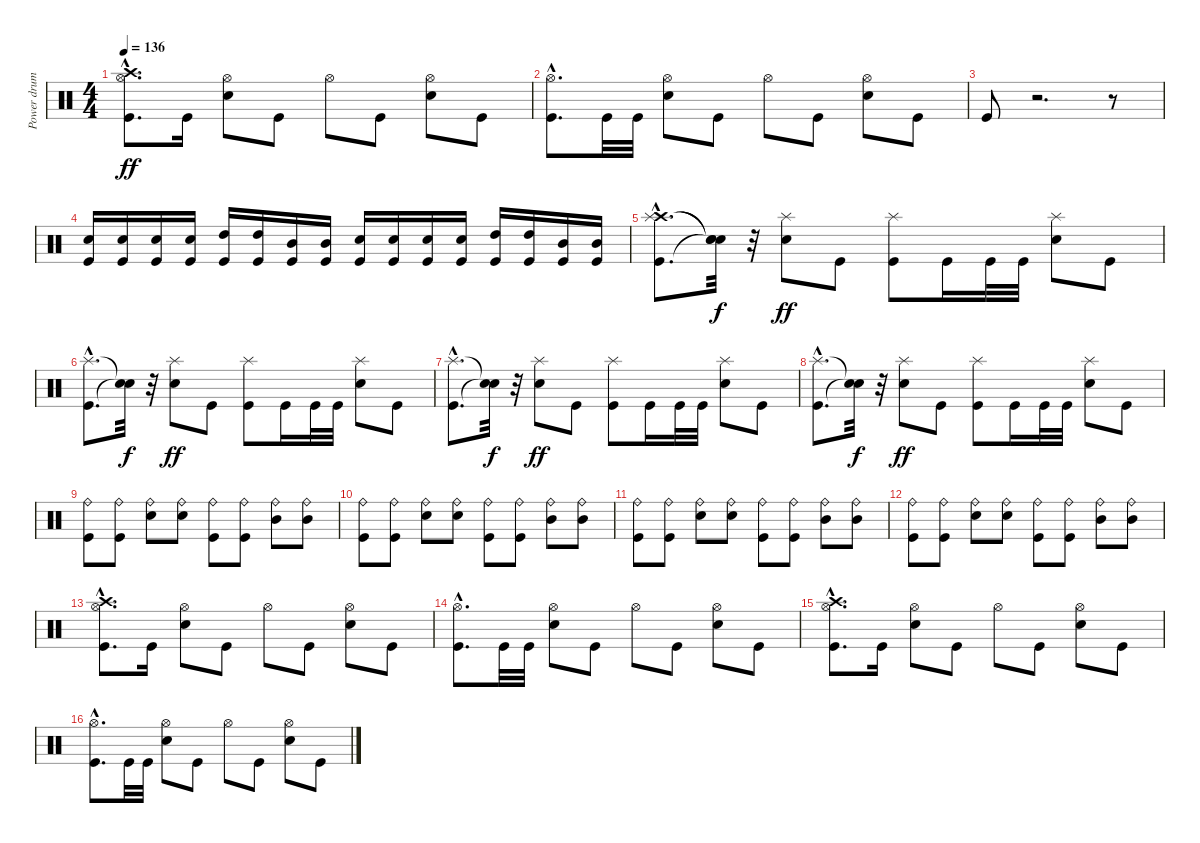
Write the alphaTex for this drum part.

\track ("Power drums" "Power drum") {instrument percussion}
\staff {score}
\articulation defaults
\ts (4 4)
\tempo 136
\clef neutral
\ks c
("Kick (hit)"{hac} "Hi-Hat (open)"{hac} "Crash high (hit)"{hac}).8{d dy ff} "Kick (hit)".16 ("Snare (hit) 2" "Hi-Hat (open)").8 "Kick (hit)".8 "Hi-Hat (open)".8 "Kick (hit)".8 ("Snare (hit) 2" "Hi-Hat (open)").8 "Kick (hit)".8 |
("Kick (hit)"{hac} "Hi-Hat (open)"{hac}).8{d} "Kick (hit)".32 "Kick (hit)".32 ("Snare (hit) 2" "Hi-Hat (open)").8 "Kick (hit)".8 "Hi-Hat (open)".8 "Kick (hit)".8 ("Snare (hit) 2" "Hi-Hat (open)").8 "Kick (hit)".8 |
"Kick (hit)".8 r.2{d} r.8 |
("Kick (hit)" "Snare (hit) 2").16 ("Kick (hit)" "Snare (hit) 2").16 ("Kick (hit)" "Snare (hit) 2").16 ("Kick (hit)" "Snare (hit) 2").16 ("Kick (hit)" "High Tom (hit)").16 ("Kick (hit)" "High Tom (hit)").16 ("Kick (hit)" "Mid Tom (hit)").16 ("Kick (hit)" "Mid Tom (hit)").16 ("Kick (hit)" "Snare (hit) 2").16 ("Kick (hit)" "Snare (hit) 2").16 ("Kick (hit)" "Snare (hit) 2").16 ("Kick (hit)" "Snare (hit) 2").16 ("Kick (hit)" "High Tom (hit)").16 ("Kick (hit)" "High Tom (hit)").16 ("Kick (hit)" "Mid Tom (hit)").16 ("Kick (hit)" "Mid Tom (hit)").16 |
("Kick (hit)"{hac} "Crash high (hit)"{hac} "Splash (hit)"{hac}).8{d} ("Snare (hit)"{t} "Snare (hit)"{t} "Snare (hit)"{t}).32{dy f} r.32 ("Snare (hit) 2" "Splash (hit)").8{dy ff} "Kick (hit)".8 ("Kick (hit)" "Splash (hit)").8 "Kick (hit)".16 "Kick (hit)".32 "Kick (hit)".32 ("Snare (hit) 2" "Splash (hit)").8 "Kick (hit)".8 |
("Kick (hit)"{hac} "Splash (hit)"{hac}).8{d} ("Snare (hit)"{t} "Snare (hit)"{t}).32{dy f} r.32 ("Snare (hit) 2" "Splash (hit)").8{dy ff} "Kick (hit)".8 ("Kick (hit)" "Splash (hit)").8 "Kick (hit)".16 "Kick (hit)".32 "Kick (hit)".32 ("Snare (hit) 2" "Splash (hit)").8 "Kick (hit)".8 |
("Kick (hit)"{hac} "Splash (hit)"{hac}).8{d} ("Snare (hit)"{t} "Snare (hit)"{t}).32{dy f} r.32 ("Snare (hit) 2" "Splash (hit)").8{dy ff} "Kick (hit)".8 ("Kick (hit)" "Splash (hit)").8 "Kick (hit)".16 "Kick (hit)".32 "Kick (hit)".32 ("Snare (hit) 2" "Splash (hit)").8 "Kick (hit)".8 |
("Kick (hit)"{hac} "Splash (hit)"{hac}).8{d} ("Snare (hit)"{t} "Snare (hit)"{t}).32{dy f} r.32 ("Snare (hit) 2" "Splash (hit)").8{dy ff} "Kick (hit)".8 ("Kick (hit)" "Splash (hit)").8 "Kick (hit)".16 "Kick (hit)".32 "Kick (hit)".32 ("Snare (hit) 2" "Splash (hit)").8 "Kick (hit)".8 |
("Kick (hit)" "Ride (bell)").8 ("Kick (hit)" "Ride (bell)").8 ("Snare (hit) 2" "Ride (bell)").8 ("Snare (hit) 2" "Ride (bell)").8 ("Kick (hit)" "Ride (bell)").8 ("Kick (hit)" "Ride (bell)").8 ("Mid Tom (hit)" "Ride (bell)").8 ("Mid Tom (hit)" "Ride (bell)").8 |
("Kick (hit)" "Ride (bell)").8 ("Kick (hit)" "Ride (bell)").8 ("Snare (hit) 2" "Ride (bell)").8 ("Snare (hit) 2" "Ride (bell)").8 ("Kick (hit)" "Ride (bell)").8 ("Kick (hit)" "Ride (bell)").8 ("Mid Tom (hit)" "Ride (bell)").8 ("Mid Tom (hit)" "Ride (bell)").8 |
("Kick (hit)" "Ride (bell)").8 ("Kick (hit)" "Ride (bell)").8 ("Snare (hit) 2" "Ride (bell)").8 ("Snare (hit) 2" "Ride (bell)").8 ("Kick (hit)" "Ride (bell)").8 ("Kick (hit)" "Ride (bell)").8 ("Mid Tom (hit)" "Ride (bell)").8 ("Mid Tom (hit)" "Ride (bell)").8 |
("Kick (hit)" "Ride (bell)").8 ("Kick (hit)" "Ride (bell)").8 ("Snare (hit) 2" "Ride (bell)").8 ("Snare (hit) 2" "Ride (bell)").8 ("Kick (hit)" "Ride (bell)").8 ("Kick (hit)" "Ride (bell)").8 ("Mid Tom (hit)" "Ride (bell)").8 ("Mid Tom (hit)" "Ride (bell)").8 |
("Kick (hit)"{hac} "Hi-Hat (open)"{hac} "Crash high (hit)"{hac}).8{d} "Kick (hit)".16 ("Snare (hit) 2" "Hi-Hat (open)").8 "Kick (hit)".8 "Hi-Hat (open)".8 "Kick (hit)".8 ("Snare (hit) 2" "Hi-Hat (open)").8 "Kick (hit)".8 |
("Kick (hit)"{hac} "Hi-Hat (open)"{hac}).8{d} "Kick (hit)".32 "Kick (hit)".32 ("Snare (hit) 2" "Hi-Hat (open)").8 "Kick (hit)".8 "Hi-Hat (open)".8 "Kick (hit)".8 ("Snare (hit) 2" "Hi-Hat (open)").8 "Kick (hit)".8 |
("Kick (hit)"{hac} "Hi-Hat (open)"{hac} "Crash high (hit)"{hac}).8{d} "Kick (hit)".16 ("Snare (hit) 2" "Hi-Hat (open)").8 "Kick (hit)".8 "Hi-Hat (open)".8 "Kick (hit)".8 ("Snare (hit) 2" "Hi-Hat (open)").8 "Kick (hit)".8 |
("Kick (hit)"{hac} "Hi-Hat (open)"{hac}).8{d} "Kick (hit)".32 "Kick (hit)".32 ("Snare (hit) 2" "Hi-Hat (open)").8 "Kick (hit)".8 "Hi-Hat (open)".8 "Kick (hit)".8 ("Snare (hit) 2" "Hi-Hat (open)").8 "Kick (hit)".8
